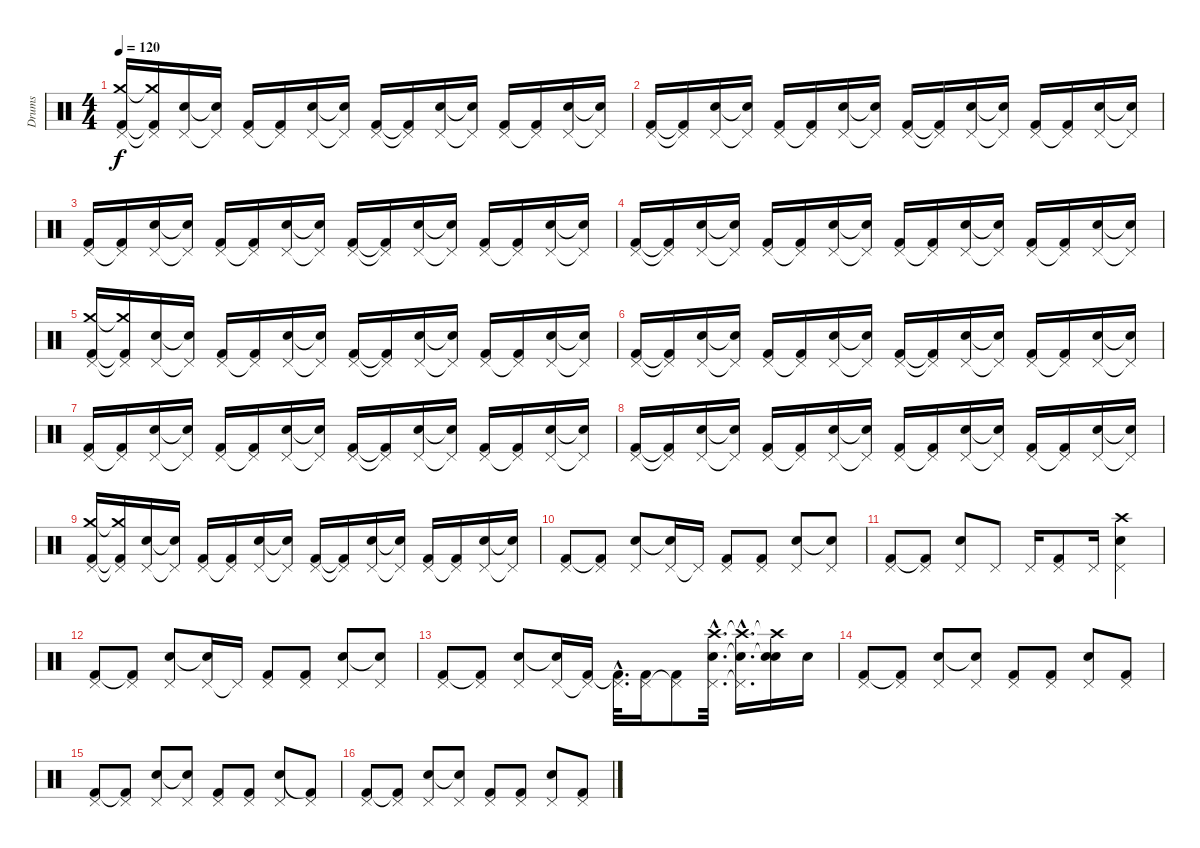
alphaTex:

\track ("Drums" "Drums") {instrument percussion}
\staff {score}
\articulation defaults
\ts (4 4)
\tempo 120
\clef neutral
\ks c
("Pedal Hi-Hat (hit)" "Crash medium (hit)" "Kick (hit) 2").16{dy f} ("Pedal Hi-Hat (hit)"{t} "Crash medium (hit)"{t} "Kick (hit) 2"{t}).16 ("Pedal Hi-Hat (hit)" "Snare (hit) 2").16 ("Pedal Hi-Hat (hit)"{t} "Snare (hit) 2"{t}).16 ("Pedal Hi-Hat (hit)" "Kick (hit) 2").16 ("Pedal Hi-Hat (hit)"{t} "Kick (hit) 2").16 ("Pedal Hi-Hat (hit)" "Snare (hit) 2").16 ("Pedal Hi-Hat (hit)"{t} "Snare (hit) 2"{t}).16 ("Pedal Hi-Hat (hit)" "Kick (hit) 2").16 ("Pedal Hi-Hat (hit)"{t} "Kick (hit) 2"{t}).16 ("Pedal Hi-Hat (hit)" "Snare (hit) 2").16 ("Pedal Hi-Hat (hit)"{t} "Snare (hit) 2"{t}).16 ("Pedal Hi-Hat (hit)" "Kick (hit) 2").16 ("Pedal Hi-Hat (hit)"{t} "Kick (hit) 2").16 ("Pedal Hi-Hat (hit)" "Snare (hit) 2").16 ("Pedal Hi-Hat (hit)"{t} "Snare (hit) 2"{t}).16 |
("Pedal Hi-Hat (hit)" "Kick (hit) 2").16 ("Pedal Hi-Hat (hit)"{t} "Kick (hit) 2"{t}).16 ("Pedal Hi-Hat (hit)" "Snare (hit) 2").16 ("Pedal Hi-Hat (hit)"{t} "Snare (hit) 2"{t}).16 ("Pedal Hi-Hat (hit)" "Kick (hit) 2").16 ("Pedal Hi-Hat (hit)"{t} "Kick (hit) 2").16 ("Pedal Hi-Hat (hit)" "Snare (hit) 2").16 ("Pedal Hi-Hat (hit)"{t} "Snare (hit) 2"{t}).16 ("Pedal Hi-Hat (hit)" "Kick (hit) 2").16 ("Pedal Hi-Hat (hit)"{t} "Kick (hit) 2"{t}).16 ("Pedal Hi-Hat (hit)" "Snare (hit) 2").16 ("Pedal Hi-Hat (hit)"{t} "Snare (hit) 2"{t}).16 ("Pedal Hi-Hat (hit)" "Kick (hit) 2").16 ("Pedal Hi-Hat (hit)"{t} "Kick (hit) 2").16 ("Pedal Hi-Hat (hit)" "Snare (hit) 2").16 ("Pedal Hi-Hat (hit)"{t} "Snare (hit) 2"{t}).16 |
("Pedal Hi-Hat (hit)" "Kick (hit) 2").16 ("Pedal Hi-Hat (hit)"{t} "Kick (hit) 2").16 ("Pedal Hi-Hat (hit)" "Snare (hit) 2").16 ("Pedal Hi-Hat (hit)"{t} "Snare (hit) 2"{t}).16 ("Pedal Hi-Hat (hit)" "Kick (hit) 2").16 ("Pedal Hi-Hat (hit)"{t} "Kick (hit) 2").16 ("Pedal Hi-Hat (hit)" "Snare (hit) 2").16 ("Pedal Hi-Hat (hit)"{t} "Snare (hit) 2"{t}).16 ("Pedal Hi-Hat (hit)" "Kick (hit) 2").16 ("Pedal Hi-Hat (hit)"{t} "Kick (hit) 2"{t}).16 ("Pedal Hi-Hat (hit)" "Snare (hit) 2").16 ("Pedal Hi-Hat (hit)"{t} "Snare (hit) 2"{t}).16 ("Pedal Hi-Hat (hit)" "Kick (hit) 2").16 ("Pedal Hi-Hat (hit)"{t} "Kick (hit) 2").16 ("Pedal Hi-Hat (hit)" "Snare (hit) 2").16 ("Pedal Hi-Hat (hit)"{t} "Snare (hit) 2"{t}).16 |
("Pedal Hi-Hat (hit)" "Kick (hit) 2").16 ("Pedal Hi-Hat (hit)"{t} "Kick (hit) 2"{t}).16 ("Pedal Hi-Hat (hit)" "Snare (hit) 2").16 ("Pedal Hi-Hat (hit)"{t} "Snare (hit) 2"{t}).16 ("Pedal Hi-Hat (hit)" "Kick (hit) 2").16 ("Pedal Hi-Hat (hit)"{t} "Kick (hit) 2").16 ("Pedal Hi-Hat (hit)" "Snare (hit) 2").16 ("Pedal Hi-Hat (hit)"{t} "Snare (hit) 2"{t}).16 ("Pedal Hi-Hat (hit)" "Kick (hit) 2").16 ("Pedal Hi-Hat (hit)"{t} "Kick (hit) 2").16 ("Pedal Hi-Hat (hit)" "Snare (hit) 2").16 ("Pedal Hi-Hat (hit)"{t} "Snare (hit) 2"{t}).16 ("Pedal Hi-Hat (hit)" "Kick (hit) 2").16 ("Pedal Hi-Hat (hit)"{t} "Kick (hit) 2").16 ("Pedal Hi-Hat (hit)" "Snare (hit) 2").16 ("Pedal Hi-Hat (hit)"{t} "Snare (hit) 2"{t}).16 |
("Pedal Hi-Hat (hit)" "Crash medium (hit)" "Kick (hit) 2").16 ("Pedal Hi-Hat (hit)"{t} "Crash medium (hit)"{t} "Kick (hit) 2"{t}).16 ("Pedal Hi-Hat (hit)" "Snare (hit) 2").16 ("Pedal Hi-Hat (hit)"{t} "Snare (hit) 2"{t}).16 ("Pedal Hi-Hat (hit)" "Kick (hit) 2").16 ("Pedal Hi-Hat (hit)"{t} "Kick (hit) 2").16 ("Pedal Hi-Hat (hit)" "Snare (hit) 2").16 ("Pedal Hi-Hat (hit)"{t} "Snare (hit) 2"{t}).16 ("Pedal Hi-Hat (hit)" "Kick (hit) 2").16 ("Pedal Hi-Hat (hit)"{t} "Kick (hit) 2"{t}).16 ("Pedal Hi-Hat (hit)" "Snare (hit) 2").16 ("Pedal Hi-Hat (hit)"{t} "Snare (hit) 2"{t}).16 ("Pedal Hi-Hat (hit)" "Kick (hit) 2").16 ("Pedal Hi-Hat (hit)"{t} "Kick (hit) 2").16 ("Pedal Hi-Hat (hit)" "Snare (hit) 2").16 ("Pedal Hi-Hat (hit)"{t} "Snare (hit) 2"{t}).16 |
("Pedal Hi-Hat (hit)" "Kick (hit) 2").16 ("Pedal Hi-Hat (hit)"{t} "Kick (hit) 2"{t}).16 ("Pedal Hi-Hat (hit)" "Snare (hit) 2").16 ("Pedal Hi-Hat (hit)"{t} "Snare (hit) 2"{t}).16 ("Pedal Hi-Hat (hit)" "Kick (hit) 2").16 ("Pedal Hi-Hat (hit)"{t} "Kick (hit) 2").16 ("Pedal Hi-Hat (hit)" "Snare (hit) 2").16 ("Pedal Hi-Hat (hit)"{t} "Snare (hit) 2"{t}).16 ("Pedal Hi-Hat (hit)" "Kick (hit) 2").16 ("Pedal Hi-Hat (hit)"{t} "Kick (hit) 2"{t}).16 ("Pedal Hi-Hat (hit)" "Snare (hit) 2").16 ("Pedal Hi-Hat (hit)"{t} "Snare (hit) 2"{t}).16 ("Pedal Hi-Hat (hit)" "Kick (hit) 2").16 ("Pedal Hi-Hat (hit)"{t} "Kick (hit) 2").16 ("Pedal Hi-Hat (hit)" "Snare (hit) 2").16 ("Pedal Hi-Hat (hit)"{t} "Snare (hit) 2"{t}).16 |
("Pedal Hi-Hat (hit)" "Kick (hit) 2").16 ("Pedal Hi-Hat (hit)"{t} "Kick (hit) 2").16 ("Pedal Hi-Hat (hit)" "Snare (hit) 2").16 ("Pedal Hi-Hat (hit)"{t} "Snare (hit) 2"{t}).16 ("Pedal Hi-Hat (hit)" "Kick (hit) 2").16 ("Pedal Hi-Hat (hit)"{t} "Kick (hit) 2").16 ("Pedal Hi-Hat (hit)" "Snare (hit) 2").16 ("Pedal Hi-Hat (hit)"{t} "Snare (hit) 2"{t}).16 ("Pedal Hi-Hat (hit)" "Kick (hit) 2").16 ("Pedal Hi-Hat (hit)"{t} "Kick (hit) 2"{t}).16 ("Pedal Hi-Hat (hit)" "Snare (hit) 2").16 ("Pedal Hi-Hat (hit)"{t} "Snare (hit) 2"{t}).16 ("Pedal Hi-Hat (hit)" "Kick (hit) 2").16 ("Pedal Hi-Hat (hit)"{t} "Kick (hit) 2").16 ("Pedal Hi-Hat (hit)" "Snare (hit) 2").16 ("Pedal Hi-Hat (hit)"{t} "Snare (hit) 2"{t}).16 |
("Pedal Hi-Hat (hit)" "Kick (hit) 2").16 ("Pedal Hi-Hat (hit)"{t} "Kick (hit) 2"{t}).16 ("Pedal Hi-Hat (hit)" "Snare (hit) 2").16 ("Pedal Hi-Hat (hit)"{t} "Snare (hit) 2"{t}).16 ("Pedal Hi-Hat (hit)" "Kick (hit) 2").16 ("Pedal Hi-Hat (hit)"{t} "Kick (hit) 2").16 ("Pedal Hi-Hat (hit)" "Snare (hit) 2").16 ("Pedal Hi-Hat (hit)"{t} "Snare (hit) 2"{t}).16 ("Pedal Hi-Hat (hit)" "Kick (hit) 2").16 ("Pedal Hi-Hat (hit)"{t} "Kick (hit) 2").16 ("Pedal Hi-Hat (hit)" "Snare (hit) 2").16 ("Pedal Hi-Hat (hit)"{t} "Snare (hit) 2"{t}).16 ("Pedal Hi-Hat (hit)" "Kick (hit) 2").16 ("Pedal Hi-Hat (hit)"{t} "Kick (hit) 2").16 ("Pedal Hi-Hat (hit)" "Snare (hit) 2").16 ("Pedal Hi-Hat (hit)"{t} "Snare (hit) 2"{t}).16 |
("Pedal Hi-Hat (hit)" "Crash medium (hit)" "Kick (hit) 2").16 ("Pedal Hi-Hat (hit)"{t} "Crash medium (hit)"{t} "Kick (hit) 2"{t}).16 ("Pedal Hi-Hat (hit)" "Snare (hit) 2").16 ("Pedal Hi-Hat (hit)"{t} "Snare (hit) 2"{t}).16 ("Pedal Hi-Hat (hit)" "Kick (hit) 2").16 ("Pedal Hi-Hat (hit)"{t} "Kick (hit) 2").16 ("Pedal Hi-Hat (hit)" "Snare (hit) 2").16 ("Pedal Hi-Hat (hit)"{t} "Snare (hit) 2"{t}).16 ("Pedal Hi-Hat (hit)" "Kick (hit) 2").16 ("Pedal Hi-Hat (hit)"{t} "Kick (hit) 2"{t}).16 ("Pedal Hi-Hat (hit)" "Snare (hit) 2").16 ("Pedal Hi-Hat (hit)"{t} "Snare (hit) 2"{t}).16 ("Pedal Hi-Hat (hit)" "Kick (hit) 2").16 ("Pedal Hi-Hat (hit)"{t} "Kick (hit) 2").16 ("Pedal Hi-Hat (hit)" "Snare (hit) 2").16 ("Pedal Hi-Hat (hit)"{t} "Snare (hit) 2"{t}).16 |
("Pedal Hi-Hat (hit)" "Kick (hit) 2").8 ("Pedal Hi-Hat (hit)" "Kick (hit) 2"{t}).8 ("Pedal Hi-Hat (hit)" "Snare (hit) 2").8 ("Pedal Hi-Hat (hit)" "Snare (hit) 2"{t}).16 "Pedal Hi-Hat (hit)"{t}.16 ("Pedal Hi-Hat (hit)" "Kick (hit) 2").8 ("Pedal Hi-Hat (hit)" "Kick (hit) 2").8 ("Pedal Hi-Hat (hit)" "Snare (hit) 2").8 ("Pedal Hi-Hat (hit)" "Snare (hit) 2"{t}).8 |
("Pedal Hi-Hat (hit)" "Kick (hit) 2").8 ("Pedal Hi-Hat (hit)" "Kick (hit) 2"{t}).8 ("Pedal Hi-Hat (hit)" "Snare (hit) 2").8 "Pedal Hi-Hat (hit)".8 "Pedal Hi-Hat (hit)".16 ("Pedal Hi-Hat (hit)" "Kick (hit) 2").8 "Pedal Hi-Hat (hit)".16 ("Pedal Hi-Hat (hit)" "Crash high (hit)" "Snare (hit) 2").4 |
("Pedal Hi-Hat (hit)" "Kick (hit) 2").8 ("Pedal Hi-Hat (hit)" "Kick (hit) 2"{t}).8 ("Pedal Hi-Hat (hit)" "Snare (hit) 2").8 ("Pedal Hi-Hat (hit)" "Snare (hit) 2"{t}).16 "Pedal Hi-Hat (hit)"{t}.16 ("Pedal Hi-Hat (hit)" "Kick (hit) 2").8 ("Pedal Hi-Hat (hit)" "Kick (hit) 2").8 ("Pedal Hi-Hat (hit)" "Snare (hit) 2").8 ("Pedal Hi-Hat (hit)" "Snare (hit) 2"{t}).8 |
("Pedal Hi-Hat (hit)" "Kick (hit) 2").8 ("Pedal Hi-Hat (hit)" "Kick (hit) 2"{t}).8 ("Pedal Hi-Hat (hit)" "Snare (hit) 2").8 ("Pedal Hi-Hat (hit)" "Snare (hit) 2"{t}).16 ("Pedal Hi-Hat (hit)"{t} "Kick (hit) 2").16 ("Pedal Hi-Hat (hit)"{hac} "Kick (hit) 2"{hac t}).32{d} ("Pedal Hi-Hat (hit)" "Kick (hit) 2").16 ("Pedal Hi-Hat (hit)"{t} "Kick (hit) 2").8 ("Pedal Hi-Hat (hit)"{hac} "Crash high (hit)"{hac} "Snare (hit) 2"{hac}).32{d} ("Pedal Hi-Hat (hit)"{hac t} "Crash high (hit)"{hac t} "Snare (hit) 2"{hac t}).16{d} ("Snare (hit) 2" "Crash high (hit)"{t} "Snare (hit) 2"{t}).16 "Snare (hit) 2".16 |
("Pedal Hi-Hat (hit)" "Kick (hit) 2").8 ("Pedal Hi-Hat (hit)" "Kick (hit) 2"{t}).8 ("Pedal Hi-Hat (hit)" "Snare (hit) 2").8 ("Pedal Hi-Hat (hit)" "Snare (hit) 2"{t}).8 ("Pedal Hi-Hat (hit)" "Kick (hit) 2").8 ("Pedal Hi-Hat (hit)" "Kick (hit) 2").8 ("Pedal Hi-Hat (hit)" "Snare (hit) 2").8 ("Pedal Hi-Hat (hit)" "Kick (hit) 2").8 |
("Pedal Hi-Hat (hit)" "Kick (hit) 2").8 ("Pedal Hi-Hat (hit)" "Kick (hit) 2"{t}).8 ("Pedal Hi-Hat (hit)" "Snare (hit) 2").8 ("Pedal Hi-Hat (hit)" "Snare (hit) 2"{t}).8 ("Pedal Hi-Hat (hit)" "Kick (hit) 2").8 ("Pedal Hi-Hat (hit)" "Kick (hit) 2").8 ("Pedal Hi-Hat (hit)" "Snare (hit) 2").8 ("Pedal Hi-Hat (hit)" "Kick (hit) 2"{t}).8 |
("Pedal Hi-Hat (hit)" "Kick (hit) 2").8 ("Pedal Hi-Hat (hit)" "Kick (hit) 2"{t}).8 ("Pedal Hi-Hat (hit)" "Snare (hit) 2").8 ("Pedal Hi-Hat (hit)" "Snare (hit) 2"{t}).8 ("Pedal Hi-Hat (hit)" "Kick (hit) 2").8 ("Pedal Hi-Hat (hit)" "Kick (hit) 2").8 ("Pedal Hi-Hat (hit)" "Snare (hit) 2").8 ("Pedal Hi-Hat (hit)" "Kick (hit) 2").8
